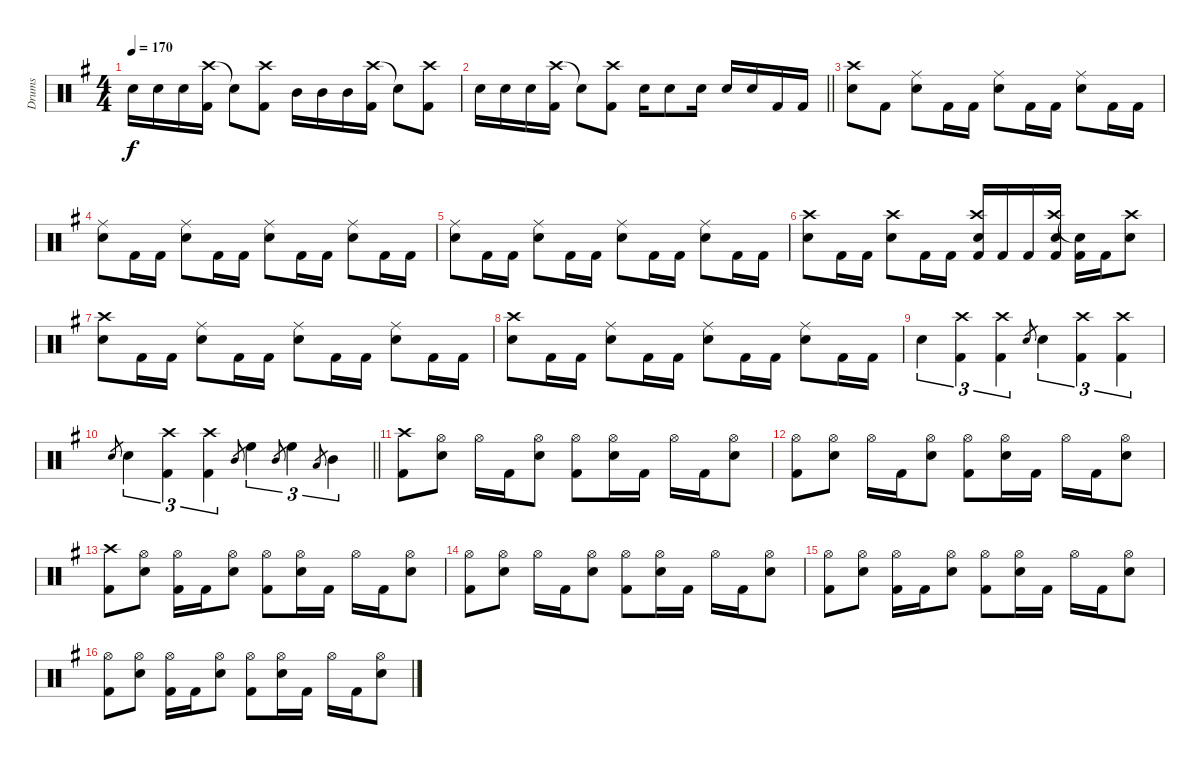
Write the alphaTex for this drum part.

\track ("Drums" "Drums") {instrument percussion}
\staff {score}
\articulation defaults
\ts (4 4)
\tempo 170
\clef neutral
\ks g "Snare (hit) 2".16{dy f} "Snare (hit) 2".16 "Snare (hit) 2".16
("Crash high (hit)" "Kick (hit) 2").16 "Snare (hit)"{t}.8 ("Crash high (hit)" "Kick (hit) 2").8 "Mid Tom (hit)".16 "Mid Tom (hit)".16 "Mid Tom (hit)".16 ("Crash high (hit)" "Kick (hit) 2").16 "Snare (hit)"{t}.8 ("Crash high (hit)" "Kick (hit) 2").8 |
\barLineRight lightlight "Snare (hit) 2".16 "Snare (hit) 2".16 "Snare (hit) 2".16
("Crash high (hit)" "Kick (hit) 2").16 "Snare (hit)"{t}.8 ("Crash high (hit)" "Kick (hit) 2").8 "Snare (hit) 2".16 "Snare (hit) 2".8 "Snare (hit) 2".16 "Snare (hit) 2".16 "Snare (hit) 2".16 "Kick (hit) 2".16 "Kick (hit) 2".16 |
("Crash high (hit)" "Snare (hit) 2").8 "Kick (hit) 2".8 ("Ride (middle)" "Snare (hit) 2").8 "Kick (hit) 2".16 "Kick (hit) 2".16 ("Ride (middle)" "Snare (hit) 2").8 "Kick (hit) 2".16 "Kick (hit) 2".16 ("Ride (middle)" "Snare (hit) 2").8 "Kick (hit) 2".16 "Kick (hit) 2".16 |
("Ride (middle)" "Snare (hit) 2").8 "Kick (hit) 2".16 "Kick (hit) 2".16 ("Ride (middle)" "Snare (hit) 2").8 "Kick (hit) 2".16 "Kick (hit) 2".16 ("Ride (middle)" "Snare (hit) 2").8 "Kick (hit) 2".16 "Kick (hit) 2".16 ("Ride (middle)" "Snare (hit) 2").8 "Kick (hit) 2".16 "Kick (hit) 2".16 |
("Ride (middle)" "Snare (hit) 2").8 "Kick (hit) 2".16 "Kick (hit) 2".16 ("Ride (middle)" "Snare (hit) 2").8 "Kick (hit) 2".16 "Kick (hit) 2".16 ("Ride (middle)" "Snare (hit) 2").8 "Kick (hit) 2".16 "Kick (hit) 2".16 ("Ride (middle)" "Snare (hit) 2").8 "Kick (hit) 2".16 "Kick (hit) 2".16 |
("Crash high (hit)" "Snare (hit) 2").8 "Kick (hit) 2".16 "Kick (hit) 2".16 ("Crash high (hit)" "Snare (hit) 2").8 "Kick (hit) 2".16 "Kick (hit) 2".16 ("Crash high (hit)" "Snare (hit) 2" "Kick (hit) 2").16 "Kick (hit) 2".16 "Kick (hit) 2".16 ("Crash high (hit)" "Snare (hit) 2" "Kick (hit) 2").16 ("Snare (hit)"{t} "Kick (hit) 2").16 "Kick (hit) 2".16 ("Crash high (hit)" "Snare (hit) 2").8 |
("Crash high (hit)" "Snare (hit) 2").8 "Kick (hit) 2".16 "Kick (hit) 2".16 ("Ride (middle)" "Snare (hit) 2").8 "Kick (hit) 2".16 "Kick (hit) 2".16 ("Ride (middle)" "Snare (hit) 2").8 "Kick (hit) 2".16 "Kick (hit) 2".16 ("Ride (middle)" "Snare (hit) 2").8 "Kick (hit) 2".16 "Kick (hit) 2".16 |
("Crash high (hit)" "Snare (hit) 2").8 "Kick (hit) 2".16 "Kick (hit) 2".16 ("Ride (middle)" "Snare (hit) 2").8 "Kick (hit) 2".16 "Kick (hit) 2".16 ("Ride (middle)" "Snare (hit) 2").8 "Kick (hit) 2".16 "Kick (hit) 2".16 ("Ride (middle)" "Snare (hit) 2").8 "Kick (hit) 2".16 "Kick (hit) 2".16 |
"Snare (hit) 2".4{tu (3 2)} ("Crash high (hit)" "Kick (hit) 2").4{tu (3 2)} ("Crash high (hit)" "Kick (hit) 2").4{tu (3 2)} "Snare (hit) 2".8{gr} "Snare (hit) 2".4{tu (3 2)} ("Crash high (hit)" "Kick (hit) 2").4{tu (3 2)} ("Crash high (hit)" "Kick (hit) 2").4{tu (3 2)} |
\barLineRight lightlight "Snare (hit) 2".8{gr} "Snare (hit) 2".4{tu (3 2)}
("Crash high (hit)" "Kick (hit) 2").4{tu (3 2)} ("Crash high (hit)" "Kick (hit) 2").4{tu (3 2)} "Mid Tom (hit)".8{gr} "High Floor Tom (hit)".4{tu (3 2)} "Mid Tom (hit)".8{gr} "High Floor Tom (hit)".4{tu (3 2)} "Low Tom (hit)".8{gr} "Mid Tom (hit)".4{tu (3 2)} |
("Crash high (hit)" "Kick (hit) 2").8 ("Hi-Hat (open)" "Snare (hit) 2").8 "Hi-Hat (open)".16 "Kick (hit) 2".16 ("Hi-Hat (open)" "Snare (hit) 2").8 ("Hi-Hat (open)" "Kick (hit) 2").8 ("Hi-Hat (open)" "Snare (hit) 2").16 "Kick (hit) 2".16 "Hi-Hat (open)".16 "Kick (hit) 2".16 ("Hi-Hat (open)" "Snare (hit) 2").8 |
("Hi-Hat (open)" "Kick (hit) 2").8 ("Hi-Hat (open)" "Snare (hit) 2").8 "Hi-Hat (open)".16 "Kick (hit) 2".16 ("Hi-Hat (open)" "Snare (hit) 2").8 ("Hi-Hat (open)" "Kick (hit) 2").8 ("Hi-Hat (open)" "Snare (hit) 2").16 "Kick (hit) 2".16 "Hi-Hat (open)".16 "Kick (hit) 2".16 ("Hi-Hat (open)" "Snare (hit) 2").8 |
("Crash high (hit)" "Kick (hit) 2").8 ("Hi-Hat (open)" "Snare (hit) 2").8 ("Hi-Hat (open)" "Kick (hit) 2").16 "Kick (hit) 2".16 ("Hi-Hat (open)" "Snare (hit) 2").8 ("Hi-Hat (open)" "Kick (hit) 2").8 ("Hi-Hat (open)" "Snare (hit) 2").16 "Kick (hit) 2".16 "Hi-Hat (open)".16 "Kick (hit) 2".16 ("Hi-Hat (open)" "Snare (hit) 2").8 |
("Hi-Hat (open)" "Kick (hit) 2").8 ("Hi-Hat (open)" "Snare (hit) 2").8 "Hi-Hat (open)".16 "Kick (hit) 2".16 ("Hi-Hat (open)" "Snare (hit) 2").8 ("Hi-Hat (open)" "Kick (hit) 2").8 ("Hi-Hat (open)" "Snare (hit) 2").16 "Kick (hit) 2".16 "Hi-Hat (open)".16 "Kick (hit) 2".16 ("Hi-Hat (open)" "Snare (hit) 2").8 |
("Hi-Hat (open)" "Kick (hit) 2").8 ("Hi-Hat (open)" "Snare (hit) 2").8 ("Hi-Hat (open)" "Kick (hit) 2").16 "Kick (hit) 2".16 ("Hi-Hat (open)" "Snare (hit) 2").8 ("Hi-Hat (open)" "Kick (hit) 2").8 ("Hi-Hat (open)" "Snare (hit) 2").16 "Kick (hit) 2".16 "Hi-Hat (open)".16 "Kick (hit) 2".16 ("Hi-Hat (open)" "Snare (hit) 2").8 |
("Hi-Hat (open)" "Kick (hit) 2").8 ("Hi-Hat (open)" "Snare (hit) 2").8 ("Hi-Hat (open)" "Kick (hit) 2").16 "Kick (hit) 2".16 ("Hi-Hat (open)" "Snare (hit) 2").8 ("Hi-Hat (open)" "Kick (hit) 2").8 ("Hi-Hat (open)" "Snare (hit) 2").16 "Kick (hit) 2".16 "Hi-Hat (open)".16 "Kick (hit) 2".16 ("Hi-Hat (open)" "Snare (hit) 2").8
